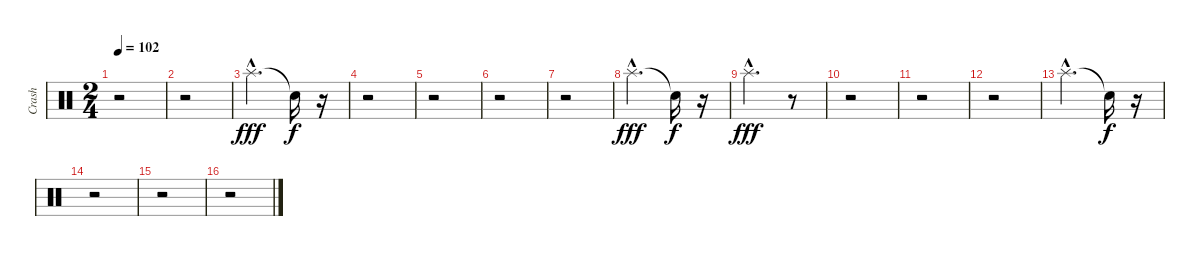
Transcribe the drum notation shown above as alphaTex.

\track ("Crash" "Crash") {instrument percussion}
\staff {score}
\articulation defaults
\ts (2 4)
\tempo 102
\clef neutral
\ks c
r.2{dy f} |
r.2 |
"Splash (hit)"{hac}.4{d dy fff} "Snare (hit)"{t}.16{dy f} r.16 |
r.2 |
r.2 |
r.2 |
r.2 |
"Splash (hit)"{hac}.4{d dy fff} "Snare (hit)"{t}.16{dy f} r.16 |
"Splash (hit)"{hac}.4{d dy fff} r.8 |
r.2 |
r.2 |
r.2 |
"Splash (hit)"{hac}.4{d} "Snare (hit)"{t}.16{dy f} r.16 |
r.2 |
r.2 |
r.2
